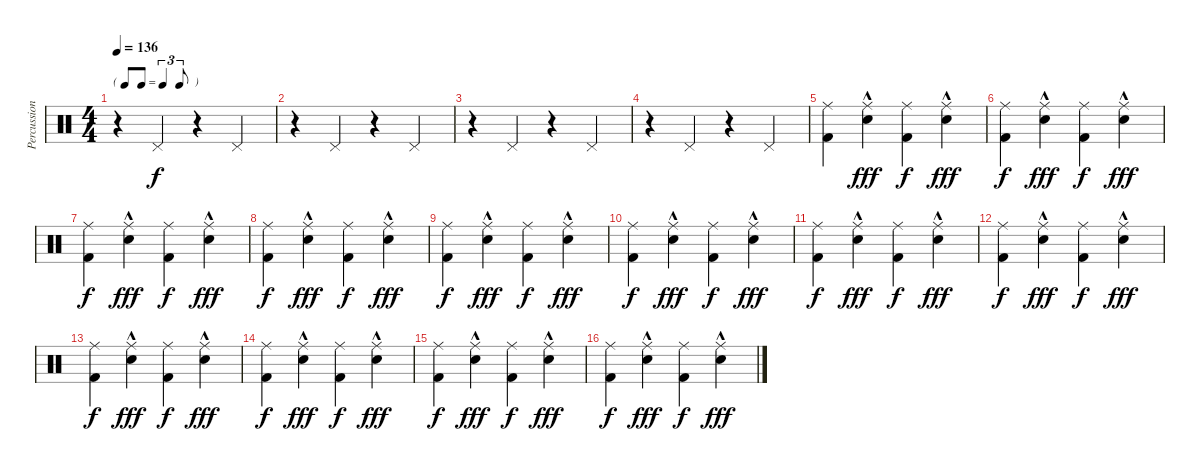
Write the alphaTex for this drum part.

\track ("Percussion" "Percussion") {instrument percussion}
\staff {score}
\articulation defaults
\ts (4 4)
\tf triplet8th
\tempo 136
\clef neutral
\ks c
r.4{dy f} "Pedal Hi-Hat (hit)".4 r.4 "Pedal Hi-Hat (hit)".4 |
r.4 "Pedal Hi-Hat (hit)".4 r.4 "Pedal Hi-Hat (hit)".4 |
r.4 "Pedal Hi-Hat (hit)".4 r.4 "Pedal Hi-Hat (hit)".4 |
r.4 "Pedal Hi-Hat (hit)".4 r.4 "Pedal Hi-Hat (hit)".4 |
("Kick (hit) 2" "Ride (middle)").4 ("Ride (middle)" "Electric Snare (hit)"{hac}).4{dy fff} ("Ride (middle)" "Kick (hit) 2").4{dy f} ("Ride (middle)" "Electric Snare (hit)"{hac}).4{dy fff} |
("Kick (hit) 2" "Ride (middle)").4{dy f} ("Ride (middle)" "Electric Snare (hit)"{hac}).4{dy fff} ("Ride (middle)" "Kick (hit) 2").4{dy f} ("Ride (middle)" "Electric Snare (hit)"{hac}).4{dy fff} |
("Kick (hit) 2" "Ride (middle)").4{dy f} ("Ride (middle)" "Electric Snare (hit)"{hac}).4{dy fff} ("Ride (middle)" "Kick (hit) 2").4{dy f} ("Ride (middle)" "Electric Snare (hit)"{hac}).4{dy fff} |
("Kick (hit) 2" "Ride (middle)").4{dy f} ("Ride (middle)" "Electric Snare (hit)"{hac}).4{dy fff} ("Ride (middle)" "Kick (hit) 2").4{dy f} ("Ride (middle)" "Electric Snare (hit)"{hac}).4{dy fff} |
("Kick (hit) 2" "Ride (middle)").4{dy f} ("Ride (middle)" "Electric Snare (hit)"{hac}).4{dy fff} ("Ride (middle)" "Kick (hit) 2").4{dy f} ("Ride (middle)" "Electric Snare (hit)"{hac}).4{dy fff} |
("Kick (hit) 2" "Ride (middle)").4{dy f} ("Ride (middle)" "Electric Snare (hit)"{hac}).4{dy fff} ("Ride (middle)" "Kick (hit) 2").4{dy f} ("Ride (middle)" "Electric Snare (hit)"{hac}).4{dy fff} |
("Kick (hit) 2" "Ride (middle)").4{dy f} ("Ride (middle)" "Electric Snare (hit)"{hac}).4{dy fff} ("Ride (middle)" "Kick (hit) 2").4{dy f} ("Ride (middle)" "Electric Snare (hit)"{hac}).4{dy fff} |
("Kick (hit) 2" "Ride (middle)").4{dy f} ("Ride (middle)" "Electric Snare (hit)"{hac}).4{dy fff} ("Ride (middle)" "Kick (hit) 2").4{dy f} ("Ride (middle)" "Electric Snare (hit)"{hac}).4{dy fff} |
("Kick (hit) 2" "Ride (middle)").4{dy f} ("Ride (middle)" "Electric Snare (hit)"{hac}).4{dy fff} ("Ride (middle)" "Kick (hit) 2").4{dy f} ("Ride (middle)" "Electric Snare (hit)"{hac}).4{dy fff} |
("Kick (hit) 2" "Ride (middle)").4{dy f} ("Ride (middle)" "Electric Snare (hit)"{hac}).4{dy fff} ("Ride (middle)" "Kick (hit) 2").4{dy f} ("Ride (middle)" "Electric Snare (hit)"{hac}).4{dy fff} |
("Kick (hit) 2" "Ride (middle)").4{dy f} ("Ride (middle)" "Electric Snare (hit)"{hac}).4{dy fff} ("Ride (middle)" "Kick (hit) 2").4{dy f} ("Ride (middle)" "Electric Snare (hit)"{hac}).4{dy fff} |
("Kick (hit) 2" "Ride (middle)").4{dy f} ("Ride (middle)" "Electric Snare (hit)"{hac}).4{dy fff} ("Ride (middle)" "Kick (hit) 2").4{dy f} ("Ride (middle)" "Electric Snare (hit)"{hac}).4{dy fff}
